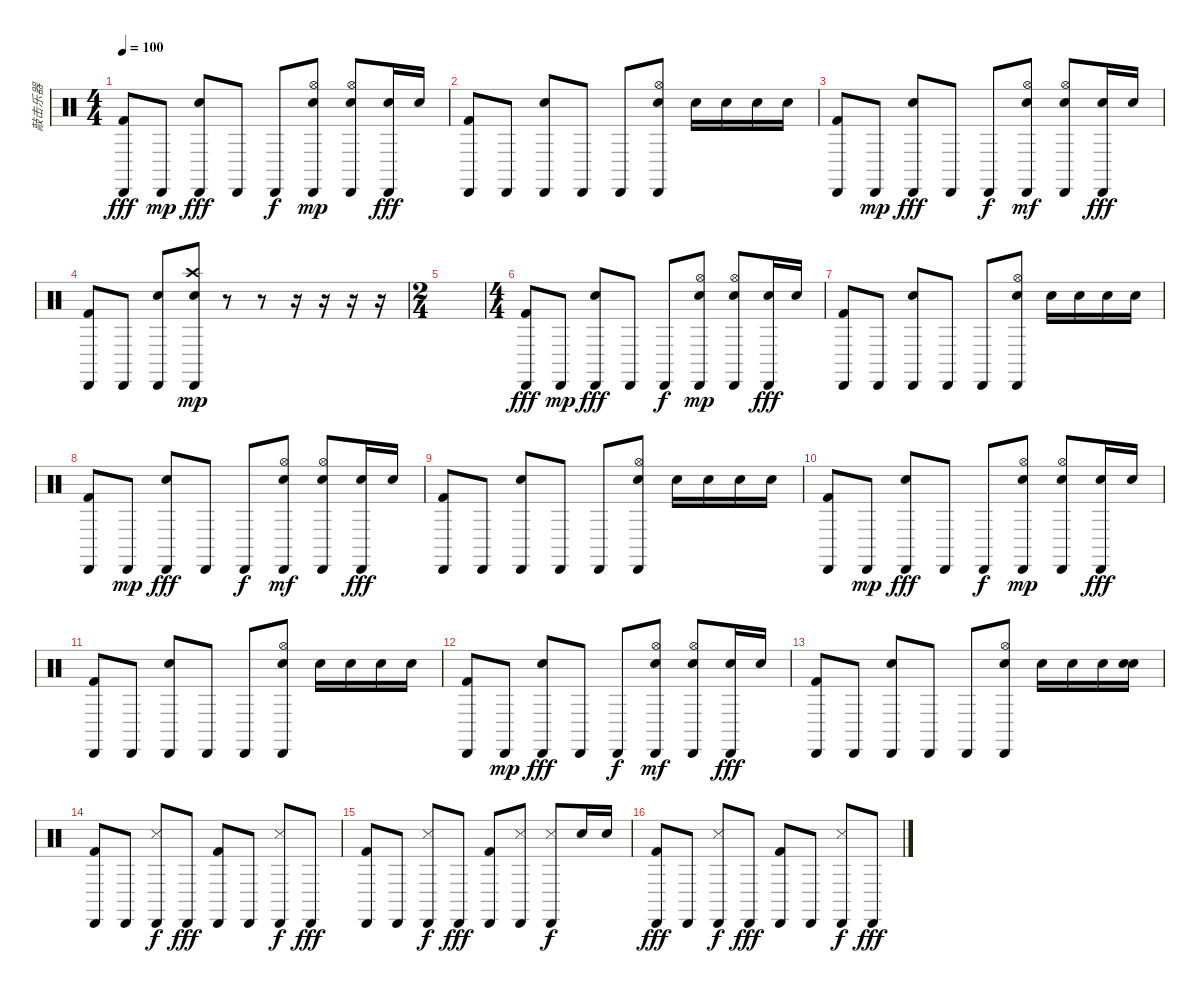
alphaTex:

\track ("敲击乐器" "敲击乐器") {instrument percussion}
\staff {score}
\articulation defaults
\ts (4 4)
\tempo 100
\clef neutral
\ks c
("Kick (hit) 2" "Cabasa (hit)").8{dy fff} "Cabasa (hit)".8{dy mp} ("Cabasa (hit)" "Snare (hit) 2").8{dy fff} "Cabasa (hit)".8 "Cabasa (hit)".8{dy f} ("Cabasa (hit)" "Snare (hit) 2" "Hi-Hat (open)").8{dy mp} ("Cabasa (hit)" "Snare (hit) 2" "Hi-Hat (open)").8 ("Cabasa (hit)" "Snare (hit) 2").16{dy fff} "Snare (hit) 2".16 |
("Kick (hit) 2" "Cabasa (hit)").8 "Cabasa (hit)".8 ("Cabasa (hit)" "Snare (hit) 2").8 "Cabasa (hit)".8 "Cabasa (hit)".8 ("Cabasa (hit)" "Snare (hit) 2" "Hi-Hat (open)").8 "Snare (hit) 2".16 "Snare (hit) 2".16 "Snare (hit) 2".16 "Snare (hit) 2".16 |
("Kick (hit) 2" "Cabasa (hit)").8 "Cabasa (hit)".8{dy mp} ("Cabasa (hit)" "Snare (hit) 2").8{dy fff} "Cabasa (hit)".8 "Cabasa (hit)".8{dy f} ("Cabasa (hit)" "Snare (hit) 2" "Hi-Hat (open)").8{dy mf} ("Cabasa (hit)" "Snare (hit) 2" "Hi-Hat (open)").8 ("Cabasa (hit)" "Snare (hit) 2").16{dy fff} "Snare (hit) 2".16 |
("Kick (hit) 2" "Cabasa (hit)").8 "Cabasa (hit)".8 ("Cabasa (hit)" "Snare (hit) 2").8 ("Cabasa (hit)" "Crash high (hit)" "Snare (hit) 2").8{dy mp} r.8 r.8 r.16 r.16 r.16 r.16 |
\ts (2 4)
|
\ts (4 4)
("Kick (hit) 2" "Cabasa (hit)").8{dy fff} "Cabasa (hit)".8{dy mp} ("Cabasa (hit)" "Snare (hit) 2").8{dy fff} "Cabasa (hit)".8 "Cabasa (hit)".8{dy f} ("Cabasa (hit)" "Snare (hit) 2" "Hi-Hat (open)").8{dy mp} ("Cabasa (hit)" "Snare (hit) 2" "Hi-Hat (open)").8 ("Cabasa (hit)" "Snare (hit) 2").16{dy fff} "Snare (hit) 2".16 |
("Kick (hit) 2" "Cabasa (hit)").8 "Cabasa (hit)".8 ("Cabasa (hit)" "Snare (hit) 2").8 "Cabasa (hit)".8 "Cabasa (hit)".8 ("Cabasa (hit)" "Snare (hit) 2" "Hi-Hat (open)").8 "Snare (hit) 2".16 "Snare (hit) 2".16 "Snare (hit) 2".16 "Snare (hit) 2".16 |
("Kick (hit) 2" "Cabasa (hit)").8 "Cabasa (hit)".8{dy mp} ("Cabasa (hit)" "Snare (hit) 2").8{dy fff} "Cabasa (hit)".8 "Cabasa (hit)".8{dy f} ("Cabasa (hit)" "Snare (hit) 2" "Hi-Hat (open)").8{dy mf} ("Cabasa (hit)" "Snare (hit) 2" "Hi-Hat (open)").8 ("Cabasa (hit)" "Snare (hit) 2").16{dy fff} "Snare (hit) 2".16 |
("Kick (hit) 2" "Cabasa (hit)").8 "Cabasa (hit)".8 ("Cabasa (hit)" "Snare (hit) 2").8 "Cabasa (hit)".8 "Cabasa (hit)".8 ("Cabasa (hit)" "Snare (hit) 2" "Hi-Hat (open)").8 "Snare (hit) 2".16 "Snare (hit) 2".16 "Snare (hit) 2".16 "Snare (hit) 2".16 |
("Kick (hit) 2" "Cabasa (hit)").8 "Cabasa (hit)".8{dy mp} ("Cabasa (hit)" "Snare (hit) 2").8{dy fff} "Cabasa (hit)".8 "Cabasa (hit)".8{dy f} ("Cabasa (hit)" "Snare (hit) 2" "Hi-Hat (open)").8{dy mp} ("Cabasa (hit)" "Snare (hit) 2" "Hi-Hat (open)").8 ("Cabasa (hit)" "Snare (hit) 2").16{dy fff} "Snare (hit) 2".16 |
("Kick (hit) 2" "Cabasa (hit)").8 "Cabasa (hit)".8 ("Cabasa (hit)" "Snare (hit) 2").8 "Cabasa (hit)".8 "Cabasa (hit)".8 ("Cabasa (hit)" "Snare (hit) 2" "Hi-Hat (open)").8 "Snare (hit) 2".16 "Snare (hit) 2".16 "Snare (hit) 2".16 "Snare (hit) 2".16 |
("Kick (hit) 2" "Cabasa (hit)").8 "Cabasa (hit)".8{dy mp} ("Cabasa (hit)" "Snare (hit) 2").8{dy fff} "Cabasa (hit)".8 "Cabasa (hit)".8{dy f} ("Cabasa (hit)" "Snare (hit) 2" "Hi-Hat (open)").8{dy mf} ("Cabasa (hit)" "Snare (hit) 2" "Hi-Hat (open)").8 ("Cabasa (hit)" "Snare (hit) 2").16{dy fff} "Snare (hit) 2".16 |
("Kick (hit) 2" "Cabasa (hit)").8 "Cabasa (hit)".8 ("Cabasa (hit)" "Snare (hit) 2").8 "Cabasa (hit)".8 "Cabasa (hit)".8 ("Cabasa (hit)" "Snare (hit) 2" "Hi-Hat (open)").8 "Snare (hit) 2".16 "Snare (hit) 2".16 "Snare (hit) 2".16 ("Snare (hit) 2" "Electric Snare (hit)").16 |
("Cabasa (hit)" "Kick (hit) 2").8 "Cabasa (hit)".8 ("Cabasa (hit)" "Snare (side stick) 3").8{dy f} "Cabasa (hit)".8{dy fff} ("Cabasa (hit)" "Kick (hit) 2").8 "Cabasa (hit)".8 ("Cabasa (hit)" "Snare (side stick) 3").8{dy f} "Cabasa (hit)".8{dy fff} |
("Cabasa (hit)" "Kick (hit) 2").8 "Cabasa (hit)".8 ("Cabasa (hit)" "Snare (side stick) 3").8{dy f} "Cabasa (hit)".8{dy fff} ("Cabasa (hit)" "Kick (hit) 2").8 ("Cabasa (hit)" "Snare (side stick) 3").8 ("Cabasa (hit)" "Snare (side stick) 3").8{dy f} "Electric Snare (hit)".16 "Snare (hit) 2".16 |
("Cabasa (hit)" "Kick (hit) 2").8{dy fff} "Cabasa (hit)".8 ("Cabasa (hit)" "Snare (side stick) 3").8{dy f} "Cabasa (hit)".8{dy fff} ("Cabasa (hit)" "Kick (hit) 2").8 "Cabasa (hit)".8 ("Cabasa (hit)" "Snare (side stick) 3").8{dy f} "Cabasa (hit)".8{dy fff}
